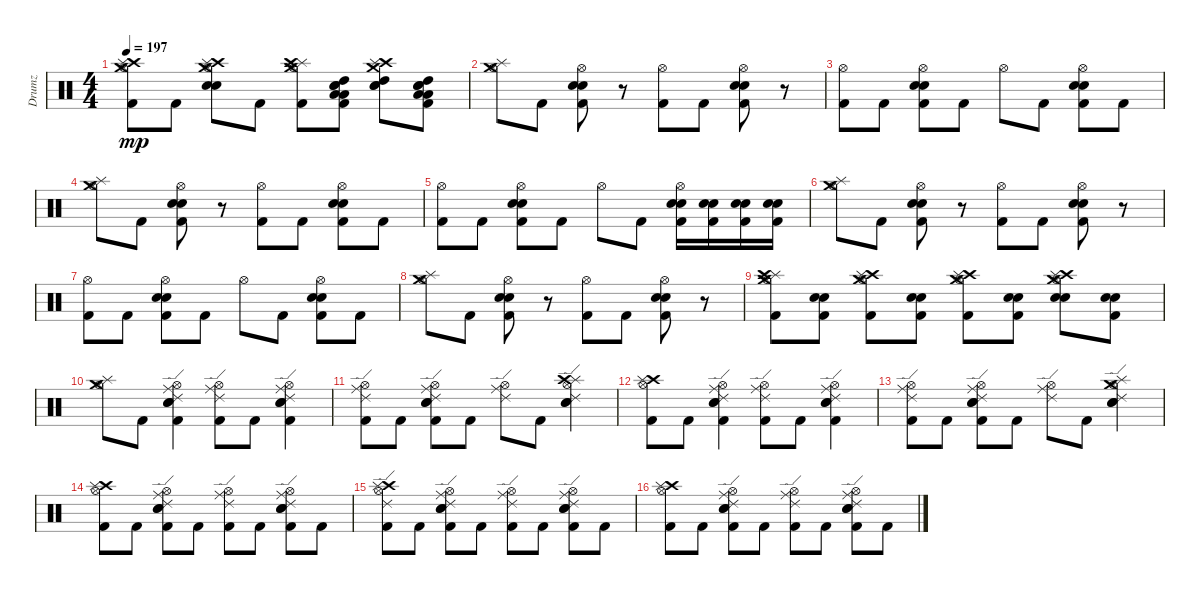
\track ("Drumz" "Drumz") {instrument percussion}
\staff {score}
\articulation defaults
\ts (4 4)
\tempo 197
\clef neutral
\ks c
("Crash high (hit)" "Splash (hit)" "Crash medium (hit)" "Hi-Hat (open)" "Kick (hit) 2").8{dy mp} "Kick (hit) 2".8 ("Crash high (hit)" "Crash medium (hit)" "Splash (hit)" "Hi-Hat (open)" "Snare (hit) 2" "Electric Snare (hit)").8 "Kick (hit) 2".8 ("Kick (hit) 2" "Splash (hit)" "Crash high (hit)" "Crash medium (hit)" "Hi-Hat (open)").8 ("Snare (hit) 2" "Electric Snare (hit)" "Low Floor Tom (hit)" "High Tom (hit)" "Low Tom (hit)" "Kick (hit) 2").8 ("Crash high (hit)" "Crash medium (hit)" "Splash (hit)" "High Tom (hit)" "Snare (hit) 2" "Electric Snare (hit)").8 ("High Tom (hit)" "Low Floor Tom (hit)" "Electric Snare (hit)" "Snare (hit) 2" "Kick (hit) 2" "Low Tom (hit)").8 |
("Splash (hit)" "Crash medium (hit)" "Hi-Hat (open)").8 "Kick (hit) 2".8 ("Kick (hit) 2" "Snare (hit) 2" "Electric Snare (hit)" "Hi-Hat (open)").8 r.8 ("Kick (hit) 2" "Hi-Hat (open)").8 "Kick (hit) 2".8 ("Kick (hit) 2" "Snare (hit) 2" "Electric Snare (hit)" "Hi-Hat (open)").8 r.8 |
("Hi-Hat (open)" "Kick (hit) 2").8 "Kick (hit) 2".8 ("Hi-Hat (open)" "Snare (hit) 2" "Electric Snare (hit)" "Kick (hit) 2").8 "Kick (hit) 2".8 "Hi-Hat (open)".8 "Kick (hit) 2".8 ("Hi-Hat (open)" "Snare (hit) 2" "Electric Snare (hit)" "Kick (hit) 2").8 "Kick (hit) 2".8 |
("Splash (hit)" "Crash medium (hit)" "Hi-Hat (open)").8 "Kick (hit) 2".8 ("Kick (hit) 2" "Snare (hit) 2" "Electric Snare (hit)" "Hi-Hat (open)").8 r.8 ("Kick (hit) 2" "Hi-Hat (open)").8 "Kick (hit) 2".8 ("Kick (hit) 2" "Snare (hit) 2" "Electric Snare (hit)" "Hi-Hat (open)").8 "Kick (hit) 2".8 |
("Hi-Hat (open)" "Kick (hit) 2").8 "Kick (hit) 2".8 ("Hi-Hat (open)" "Snare (hit) 2" "Electric Snare (hit)" "Kick (hit) 2").8 "Kick (hit) 2".8 "Hi-Hat (open)".8 "Kick (hit) 2".8 ("Hi-Hat (open)" "Snare (hit) 2" "Electric Snare (hit)" "Kick (hit) 2").16 ("Kick (hit) 2" "Snare (hit) 2" "Electric Snare (hit)").16 ("Snare (hit) 2" "Electric Snare (hit)" "Kick (hit) 2").16 ("Snare (hit) 2" "Electric Snare (hit)" "Kick (hit) 2").16 |
("Splash (hit)" "Crash medium (hit)" "Hi-Hat (open)").8 "Kick (hit) 2".8 ("Kick (hit) 2" "Snare (hit) 2" "Electric Snare (hit)" "Hi-Hat (open)").8 r.8 ("Kick (hit) 2" "Hi-Hat (open)").8 "Kick (hit) 2".8 ("Kick (hit) 2" "Snare (hit) 2" "Electric Snare (hit)" "Hi-Hat (open)").8 r.8 |
("Kick (hit) 2" "Hi-Hat (open)").8 "Kick (hit) 2".8 ("Hi-Hat (open)" "Snare (hit) 2" "Electric Snare (hit)" "Kick (hit) 2").8 "Kick (hit) 2".8 "Hi-Hat (open)".8 "Kick (hit) 2".8 ("Hi-Hat (open)" "Snare (hit) 2" "Electric Snare (hit)" "Kick (hit) 2").8 "Kick (hit) 2".8 |
("Splash (hit)" "Crash medium (hit)" "Hi-Hat (open)").8 "Kick (hit) 2".8 ("Kick (hit) 2" "Snare (hit) 2" "Electric Snare (hit)" "Hi-Hat (open)").8 r.8 ("Kick (hit) 2" "Hi-Hat (open)").8 "Kick (hit) 2".8 ("Kick (hit) 2" "Snare (hit) 2" "Electric Snare (hit)" "Hi-Hat (open)").8 r.8 |
("Splash (hit)" "Crash medium (hit)" "Crash high (hit)" "Hi-Hat (open)" "Kick (hit) 2").8 ("Snare (hit) 2" "Electric Snare (hit)" "Kick (hit) 2").8 ("Crash high (hit)" "Splash (hit)" "Crash medium (hit)" "Hi-Hat (open)" "Kick (hit) 2").8 ("Snare (hit) 2" "Electric Snare (hit)" "Kick (hit) 2").8 ("Crash high (hit)" "Splash (hit)" "Crash medium (hit)" "Kick (hit) 2" "Hi-Hat (open)").8 ("Snare (hit) 2" "Electric Snare (hit)" "Kick (hit) 2").8 ("Crash high (hit)" "Splash (hit)" "Crash medium (hit)" "Hi-Hat (open)" "Snare (hit) 2" "Electric Snare (hit)").8 ("Kick (hit) 2" "Snare (hit) 2" "Electric Snare (hit)").8 |
("Splash (hit)" "Crash medium (hit)" "Hi-Hat (open)").8 "Kick (hit) 2".8 ("Ride (middle)" "Ride (edge) 2" "Kick (hit) 2" "Snare (hit) 2" "Electric Snare (hit)" "Hi-Hat (open)").4 ("Ride (middle)" "Ride (edge) 2" "Kick (hit) 2" "Hi-Hat (open)").8 "Kick (hit) 2".8 ("Ride (middle)" "Ride (edge) 2" "Kick (hit) 2" "Snare (hit) 2" "Electric Snare (hit)" "Hi-Hat (open)").4 |
("Ride (middle)" "Ride (edge) 2" "Hi-Hat (open)" "Kick (hit) 2").8 "Kick (hit) 2".8 ("Ride (middle)" "Ride (edge) 2" "Hi-Hat (open)" "Snare (hit) 2" "Electric Snare (hit)" "Kick (hit) 2").8 "Kick (hit) 2".8 ("Ride (middle)" "Ride (edge) 2" "Hi-Hat (open)").8 "Kick (hit) 2".8 ("Splash (hit)" "Crash high (hit)" "Ride (edge) 2" "Hi-Hat (open)" "Snare (hit) 2" "Electric Snare (hit)").4 |
("Kick (hit) 2" "Crash high (hit)" "Splash (hit)" "Hi-Hat (open)").8 "Kick (hit) 2".8 ("Ride (middle)" "Ride (edge) 2" "Kick (hit) 2" "Snare (hit) 2" "Electric Snare (hit)" "Hi-Hat (open)").4 ("Ride (middle)" "Ride (edge) 2" "Kick (hit) 2" "Hi-Hat (open)").8 "Kick (hit) 2".8 ("Ride (middle)" "Ride (edge) 2" "Kick (hit) 2" "Snare (hit) 2" "Electric Snare (hit)" "Hi-Hat (open)").4 |
("Ride (middle)" "Ride (edge) 2" "Hi-Hat (open)" "Kick (hit) 2").8 "Kick (hit) 2".8 ("Ride (middle)" "Ride (edge) 2" "Hi-Hat (open)" "Snare (hit) 2" "Electric Snare (hit)" "Kick (hit) 2").8 "Kick (hit) 2".8 ("Ride (middle)" "Ride (edge) 2" "Hi-Hat (open)").8 "Kick (hit) 2".8 ("Crash medium (hit)" "Splash (hit)" "Ride (edge) 2" "Hi-Hat (open)" "Snare (hit) 2" "Electric Snare (hit)").4 |
("Kick (hit) 2" "Crash high (hit)" "Splash (hit)" "Hi-Hat (open)").8 "Kick (hit) 2".8 ("Ride (middle)" "Ride (edge) 2" "Kick (hit) 2" "Snare (hit) 2" "Electric Snare (hit)" "Hi-Hat (open)").8 "Kick (hit) 2".8 ("Ride (middle)" "Ride (edge) 2" "Kick (hit) 2" "Hi-Hat (open)").8 "Kick (hit) 2".8 ("Ride (middle)" "Ride (edge) 2" "Kick (hit) 2" "Snare (hit) 2" "Electric Snare (hit)" "Hi-Hat (open)").8 "Kick (hit) 2".8 |
("Crash high (hit)" "Splash (hit)" "Ride (edge) 2" "Hi-Hat (open)" "Kick (hit) 2").8 "Kick (hit) 2".8 ("Ride (middle)" "Ride (edge) 2" "Hi-Hat (open)" "Snare (hit) 2" "Electric Snare (hit)" "Kick (hit) 2").8 "Kick (hit) 2".8 ("Kick (hit) 2" "Ride (middle)" "Ride (edge) 2" "Hi-Hat (open)").8 "Kick (hit) 2".8 ("Ride (middle)" "Ride (edge) 2" "Hi-Hat (open)" "Snare (hit) 2" "Electric Snare (hit)" "Kick (hit) 2").8 "Kick (hit) 2".8 |
("Kick (hit) 2" "Crash high (hit)" "Splash (hit)" "Hi-Hat (open)").8 "Kick (hit) 2".8 ("Ride (middle)" "Ride (edge) 2" "Kick (hit) 2" "Snare (hit) 2" "Electric Snare (hit)" "Hi-Hat (open)").8 "Kick (hit) 2".8 ("Ride (middle)" "Ride (edge) 2" "Kick (hit) 2" "Hi-Hat (open)").8 "Kick (hit) 2".8 ("Ride (middle)" "Ride (edge) 2" "Kick (hit) 2" "Snare (hit) 2" "Electric Snare (hit)" "Hi-Hat (open)").8 "Kick (hit) 2".8
